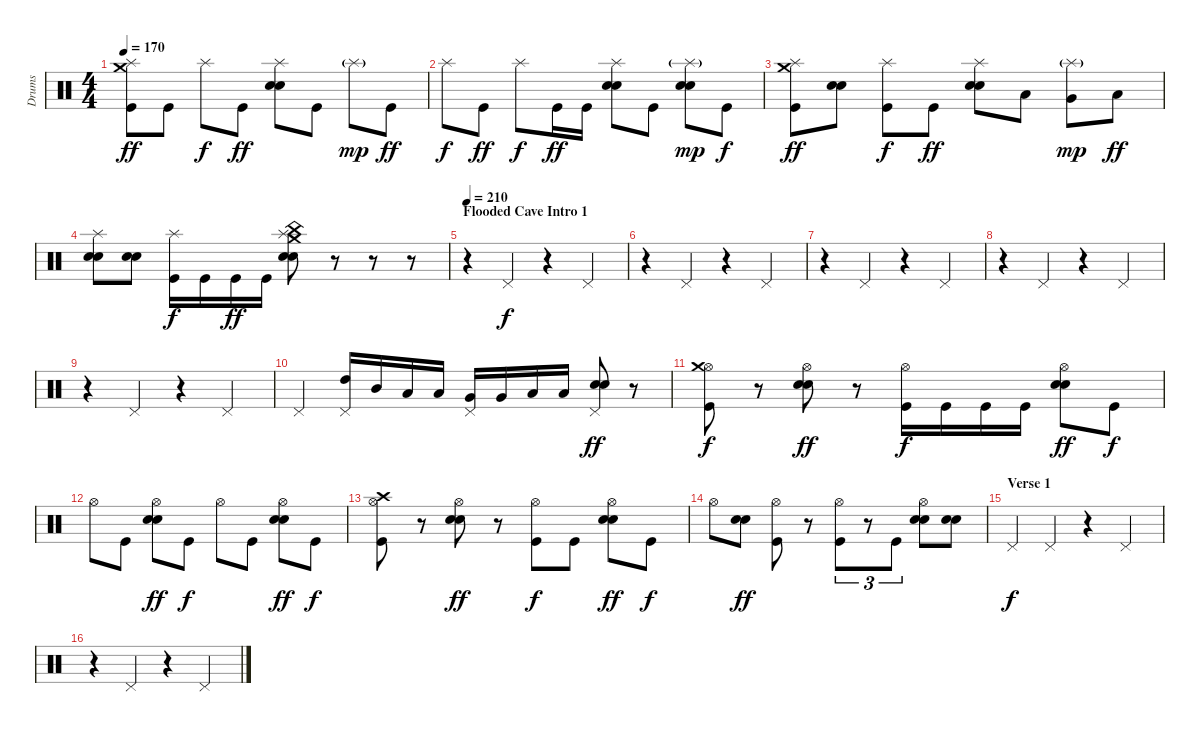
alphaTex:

\track ("Drums" "Drums") {instrument percussion}
\staff {score}
\articulation defaults
\ts (4 4)
\tempo 170
\clef neutral
\ks c
("Kick (hit)" "Splash (hit)" "Crash medium (hit)").8{dy ff} "Kick (hit)".8 "Splash (hit)".8{dy f} "Kick (hit)".8{dy ff} ("Electric Snare (hit)" "Electric Snare (hit)" "Splash (hit)").8 "Kick (hit)".8 "Splash (hit)"{g}.8{dy mp} "Kick (hit)".8{dy ff} |
"Splash (hit)".8{dy f} "Kick (hit)".8{dy ff} "Splash (hit)".8{dy f} "Kick (hit)".16{dy ff} "Kick (hit)".16 ("Electric Snare (hit)" "Electric Snare (hit)" "Splash (hit)").8 "Kick (hit)".8 ("Electric Snare (hit)" "Electric Snare (hit)" "Splash (hit)"{g}).8{dy mp} "Kick (hit)".8{dy f} |
("Kick (hit)" "Splash (hit)" "Crash medium (hit)").8{dy ff} ("Electric Snare (hit)" "Electric Snare (hit)").8 ("Kick (hit)" "Splash (hit)").8{dy f} "Kick (hit)".8{dy ff} ("Electric Snare (hit)" "Electric Snare (hit)" "Splash (hit)").8 "Low Tom (hit)".8 ("Very Low Tom (hit)" "Splash (hit)"{g}).8{dy mp} "Low Floor Tom (hit)".8{dy ff} |
("Electric Snare (hit)" "Electric Snare (hit)" "Splash (hit)").8 ("Electric Snare (hit)" "Electric Snare (hit)").8 ("Kick (hit)" "Splash (hit)").16{dy f} "Kick (hit)".16 "Kick (hit)".16{dy ff} "Kick (hit)".16 ("Electric Snare (hit)" "Electric Snare (hit)" "China (hit)" "Splash (hit)" "Crash medium (hit)").8 r.8 r.8 r.8 |
\section ("" "Flooded Cave Intro 1")
\tempo 210
r.4 "Pedal Hi-Hat (hit)".4{dy f} r.4 "Pedal Hi-Hat (hit)".4 |
r.4 "Pedal Hi-Hat (hit)".4 r.4 "Pedal Hi-Hat (hit)".4 |
r.4 "Pedal Hi-Hat (hit)".4 r.4 "Pedal Hi-Hat (hit)".4 |
r.4 "Pedal Hi-Hat (hit)".4 r.4 "Pedal Hi-Hat (hit)".4 |
r.4 "Pedal Hi-Hat (hit)".4 r.4 "Pedal Hi-Hat (hit)".4 |
"Pedal Hi-Hat (hit)".4 ("High Tom (hit)" "Pedal Hi-Hat (hit)").16 "Mid Tom (hit)".16 "Low Tom (hit)".16 "Low Tom (hit)".16 ("Very Low Tom (hit)" "Pedal Hi-Hat (hit)").16 "Very Low Tom (hit)".16 "Low Floor Tom (hit)".16 "Low Floor Tom (hit)".16 ("Electric Snare (hit)" "Electric Snare (hit)" "Pedal Hi-Hat (hit)").8{dy ff} r.8 |
("Kick (hit)" "Hi-Hat (open)" "Crash medium (hit)").8{dy f} r.8 ("Electric Snare (hit)" "Electric Snare (hit)" "Hi-Hat (open)").8{dy ff} r.8 ("Kick (hit)" "Hi-Hat (open)").16{dy f} "Kick (hit)".16 "Kick (hit)".16 "Kick (hit)".16 ("Electric Snare (hit)" "Electric Snare (hit)" "Hi-Hat (open)").8{dy ff} "Kick (hit)".8{dy f} |
"Hi-Hat (open)".8 "Kick (hit)".8 ("Electric Snare (hit)" "Electric Snare (hit)" "Hi-Hat (open)").8{dy ff} "Kick (hit)".8{dy f} "Hi-Hat (open)".8 "Kick (hit)".8 ("Electric Snare (hit)" "Electric Snare (hit)" "Hi-Hat (open)").8{dy ff} "Kick (hit)".8{dy f} |
("Kick (hit)" "Hi-Hat (open)" "Crash high (hit)").8 r.8 ("Electric Snare (hit)" "Electric Snare (hit)" "Hi-Hat (open)").8{dy ff} r.8 ("Kick (hit)" "Hi-Hat (open)").8{dy f} "Kick (hit)".8 ("Electric Snare (hit)" "Electric Snare (hit)" "Hi-Hat (open)").8{dy ff} "Kick (hit)".8{dy f} |
"Hi-Hat (open)".8 ("Electric Snare (hit)" "Electric Snare (hit)").8{dy ff} ("Kick (hit)" "Hi-Hat (open)").8 r.8 ("Kick (hit)" "Hi-Hat (open)").8{tu (3 2)} r.8{tu (3 2)} "Kick (hit)".8{tu (3 2)} ("Electric Snare (hit)" "Electric Snare (hit)" "Hi-Hat (open)").8 ("Electric Snare (hit)" "Electric Snare (hit)").8 |
\section ("" "Verse 1")
"Pedal Hi-Hat (hit)".4{dy f} "Pedal Hi-Hat (hit)".4 r.4 "Pedal Hi-Hat (hit)".4 |
r.4 "Pedal Hi-Hat (hit)".4 r.4 "Pedal Hi-Hat (hit)".4
